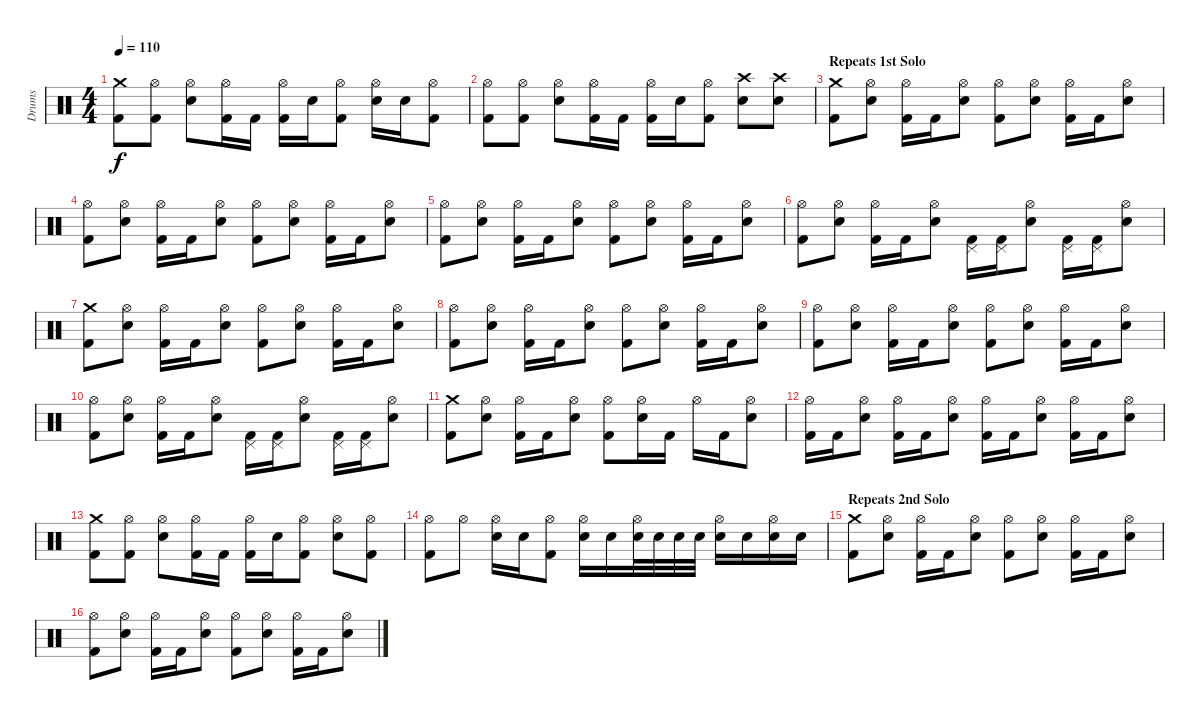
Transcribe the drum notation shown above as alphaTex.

\track ("Drums" "Drums") {instrument percussion}
\staff {score}
\articulation defaults
\ts (4 4)
\tempo 110
\clef neutral
\ks c
("Crash medium (hit)" "Kick (hit) 2").8{dy f} ("Hi-Hat (open)" "Kick (hit) 2").8 ("Hi-Hat (open)" "Electric Snare (hit)").8 ("Hi-Hat (open)" "Kick (hit) 2").16 "Kick (hit) 2".16 ("Hi-Hat (open)" "Kick (hit) 2").16 "Electric Snare (hit)".16 ("Hi-Hat (open)" "Kick (hit) 2").8 ("Hi-Hat (open)" "Electric Snare (hit)").16 "Electric Snare (hit)".16 ("Hi-Hat (open)" "Kick (hit) 2").8 |
("Hi-Hat (open)" "Kick (hit) 2").8 ("Hi-Hat (open)" "Kick (hit) 2").8 ("Hi-Hat (open)" "Electric Snare (hit)").8 ("Hi-Hat (open)" "Kick (hit) 2").16 "Kick (hit) 2".16 ("Hi-Hat (open)" "Kick (hit) 2").16 "Electric Snare (hit)".16 ("Hi-Hat (open)" "Kick (hit) 2").8 ("Crash high (hit)" "Electric Snare (hit)").8 ("Crash high (hit)" "Electric Snare (hit)").8 |
\section ("" "Repeats 1st Solo ")
("Crash medium (hit)" "Kick (hit) 2").8 ("Hi-Hat (open)" "Electric Snare (hit)").8 ("Hi-Hat (open)" "Kick (hit) 2").16 "Kick (hit) 2".16 ("Hi-Hat (open)" "Electric Snare (hit)").8 ("Hi-Hat (open)" "Kick (hit) 2").8 ("Hi-Hat (open)" "Electric Snare (hit)").8 ("Hi-Hat (open)" "Kick (hit) 2").16 "Kick (hit) 2".16 ("Hi-Hat (open)" "Electric Snare (hit)").8 |
("Hi-Hat (open)" "Kick (hit) 2").8 ("Hi-Hat (open)" "Electric Snare (hit)").8 ("Hi-Hat (open)" "Kick (hit) 2").16 "Kick (hit) 2".16 ("Hi-Hat (open)" "Electric Snare (hit)").8 ("Hi-Hat (open)" "Kick (hit) 2").8 ("Hi-Hat (open)" "Electric Snare (hit)").8 ("Hi-Hat (open)" "Kick (hit) 2").16 "Kick (hit) 2".16 ("Hi-Hat (open)" "Electric Snare (hit)").8 |
("Hi-Hat (open)" "Kick (hit) 2").8 ("Hi-Hat (open)" "Electric Snare (hit)").8 ("Hi-Hat (open)" "Kick (hit) 2").16 "Kick (hit) 2".16 ("Hi-Hat (open)" "Electric Snare (hit)").8 ("Hi-Hat (open)" "Kick (hit) 2").8 ("Hi-Hat (open)" "Electric Snare (hit)").8 ("Hi-Hat (open)" "Kick (hit) 2").16 "Kick (hit) 2".16 ("Hi-Hat (open)" "Electric Snare (hit)").8 |
("Hi-Hat (open)" "Kick (hit) 2").8 ("Hi-Hat (open)" "Electric Snare (hit)").8 ("Hi-Hat (open)" "Kick (hit) 2").16 "Kick (hit) 2".16 ("Hi-Hat (open)" "Electric Snare (hit)").8 ("Pedal Hi-Hat (hit)" "Kick (hit) 2").16 ("Pedal Hi-Hat (hit)" "Kick (hit) 2").16 ("Hi-Hat (open)" "Electric Snare (hit)").8 ("Pedal Hi-Hat (hit)" "Kick (hit) 2").16 ("Pedal Hi-Hat (hit)" "Kick (hit) 2").16 ("Hi-Hat (open)" "Electric Snare (hit)").8 |
("Crash medium (hit)" "Kick (hit) 2").8 ("Hi-Hat (open)" "Electric Snare (hit)").8 ("Hi-Hat (open)" "Kick (hit) 2").16 "Kick (hit) 2".16 ("Hi-Hat (open)" "Electric Snare (hit)").8 ("Hi-Hat (open)" "Kick (hit) 2").8 ("Hi-Hat (open)" "Electric Snare (hit)").8 ("Hi-Hat (open)" "Kick (hit) 2").16 "Kick (hit) 2".16 ("Hi-Hat (open)" "Electric Snare (hit)").8 |
("Hi-Hat (open)" "Kick (hit) 2").8 ("Hi-Hat (open)" "Electric Snare (hit)").8 ("Hi-Hat (open)" "Kick (hit) 2").16 "Kick (hit) 2".16 ("Hi-Hat (open)" "Electric Snare (hit)").8 ("Hi-Hat (open)" "Kick (hit) 2").8 ("Hi-Hat (open)" "Electric Snare (hit)").8 ("Hi-Hat (open)" "Kick (hit) 2").16 "Kick (hit) 2".16 ("Hi-Hat (open)" "Electric Snare (hit)").8 |
("Hi-Hat (open)" "Kick (hit) 2").8 ("Hi-Hat (open)" "Electric Snare (hit)").8 ("Hi-Hat (open)" "Kick (hit) 2").16 "Kick (hit) 2".16 ("Hi-Hat (open)" "Electric Snare (hit)").8 ("Hi-Hat (open)" "Kick (hit) 2").8 ("Hi-Hat (open)" "Electric Snare (hit)").8 ("Hi-Hat (open)" "Kick (hit) 2").16 "Kick (hit) 2".16 ("Hi-Hat (open)" "Electric Snare (hit)").8 |
("Hi-Hat (open)" "Kick (hit) 2").8 ("Hi-Hat (open)" "Electric Snare (hit)").8 ("Hi-Hat (open)" "Kick (hit) 2").16 "Kick (hit) 2".16 ("Hi-Hat (open)" "Electric Snare (hit)").8 ("Pedal Hi-Hat (hit)" "Kick (hit) 2").16 ("Pedal Hi-Hat (hit)" "Kick (hit) 2").16 ("Hi-Hat (open)" "Electric Snare (hit)").8 ("Pedal Hi-Hat (hit)" "Kick (hit) 2").16 ("Pedal Hi-Hat (hit)" "Kick (hit) 2").16 ("Hi-Hat (open)" "Electric Snare (hit)").8 |
("Crash medium (hit)" "Kick (hit) 2").8 ("Hi-Hat (open)" "Electric Snare (hit)").8 ("Hi-Hat (open)" "Kick (hit) 2").16 "Kick (hit) 2".16 ("Hi-Hat (open)" "Electric Snare (hit)").8 ("Hi-Hat (open)" "Kick (hit) 2").8 ("Hi-Hat (open)" "Electric Snare (hit)").16 "Kick (hit) 2".16 "Hi-Hat (open)".16 "Kick (hit) 2".16 ("Hi-Hat (open)" "Electric Snare (hit)").8 |
("Hi-Hat (open)" "Kick (hit) 2").16 "Kick (hit) 2".16 ("Hi-Hat (open)" "Electric Snare (hit)").8 ("Hi-Hat (open)" "Kick (hit) 2").16 "Kick (hit) 2".16 ("Hi-Hat (open)" "Electric Snare (hit)").8 ("Hi-Hat (open)" "Kick (hit) 2").16 "Kick (hit) 2".16 ("Hi-Hat (open)" "Electric Snare (hit)").8 ("Hi-Hat (open)" "Kick (hit) 2").16 "Kick (hit) 2".16 ("Hi-Hat (open)" "Electric Snare (hit)").8 |
("Crash medium (hit)" "Kick (hit) 2").8 ("Hi-Hat (open)" "Kick (hit) 2").8 ("Hi-Hat (open)" "Electric Snare (hit)").8 ("Hi-Hat (open)" "Kick (hit) 2").16 "Kick (hit) 2".16 ("Hi-Hat (open)" "Kick (hit) 2").16 "Electric Snare (hit)".16 ("Hi-Hat (open)" "Kick (hit) 2").8 ("Hi-Hat (open)" "Electric Snare (hit)").8 ("Hi-Hat (open)" "Kick (hit) 2").8 |
("Hi-Hat (open)" "Kick (hit) 2").8 "Hi-Hat (open)".8 ("Hi-Hat (open)" "Electric Snare (hit)").16 "Electric Snare (hit)".16 ("Hi-Hat (open)" "Kick (hit) 2").8 ("Hi-Hat (open)" "Electric Snare (hit)").16 "Electric Snare (hit)".16 ("Hi-Hat (open)" "Electric Snare (hit)").32 "Electric Snare (hit)".32 "Electric Snare (hit)".32 "Electric Snare (hit)".32 ("Hi-Hat (open)" "Electric Snare (hit)").16 "Electric Snare (hit)".16 ("Hi-Hat (open)" "Electric Snare (hit)").16 "Electric Snare (hit)".16 |
\section ("" "Repeats 2nd Solo")
("Crash medium (hit)" "Kick (hit) 2").8 ("Hi-Hat (open)" "Electric Snare (hit)").8 ("Hi-Hat (open)" "Kick (hit) 2").16 "Kick (hit) 2".16 ("Hi-Hat (open)" "Electric Snare (hit)").8 ("Hi-Hat (open)" "Kick (hit) 2").8 ("Hi-Hat (open)" "Electric Snare (hit)").8 ("Hi-Hat (open)" "Kick (hit) 2").16 "Kick (hit) 2".16 ("Hi-Hat (open)" "Electric Snare (hit)").8 |
("Hi-Hat (open)" "Kick (hit) 2").8 ("Hi-Hat (open)" "Electric Snare (hit)").8 ("Hi-Hat (open)" "Kick (hit) 2").16 "Kick (hit) 2".16 ("Hi-Hat (open)" "Electric Snare (hit)").8 ("Hi-Hat (open)" "Kick (hit) 2").8 ("Hi-Hat (open)" "Electric Snare (hit)").8 ("Hi-Hat (open)" "Kick (hit) 2").16 "Kick (hit) 2".16 ("Hi-Hat (open)" "Electric Snare (hit)").8
